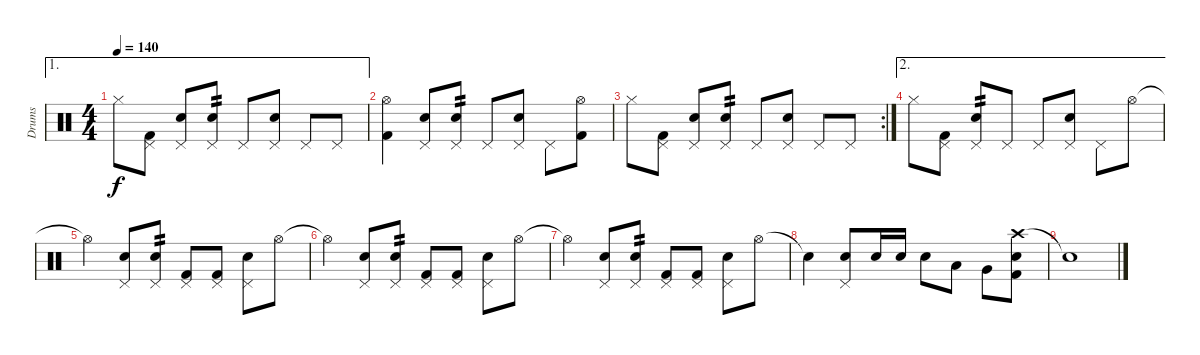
\track ("Drums" "Drums") {instrument percussion}
\staff {score}
\articulation defaults
\ae 1
\ts (4 4)
\tempo 140
\clef neutral
\ks c "Hi-Hat (closed)".8{dy f}
("Pedal Hi-Hat (hit)" "Kick (hit) 2").8 ("Pedal Hi-Hat (hit)" "Snare (hit) 2").8 ("Pedal Hi-Hat (hit)" "Snare (hit) 2").8{tp 2} "Pedal Hi-Hat (hit)".8 ("Pedal Hi-Hat (hit)" "Snare (hit) 2").8 "Pedal Hi-Hat (hit)".8 "Pedal Hi-Hat (hit)".8 |
("Hi-Hat (open)" "Kick (hit) 2").4 ("Pedal Hi-Hat (hit)" "Snare (hit) 2").8 ("Pedal Hi-Hat (hit)" "Snare (hit) 2").8{tp 2} "Pedal Hi-Hat (hit)".8 ("Pedal Hi-Hat (hit)" "Snare (hit) 2").8 "Pedal Hi-Hat (hit)".8 ("Hi-Hat (open)" "Kick (hit) 2").8 |
\rc 2 "Hi-Hat (closed)".8
("Pedal Hi-Hat (hit)" "Kick (hit) 2").8 ("Pedal Hi-Hat (hit)" "Snare (hit) 2").8 ("Pedal Hi-Hat (hit)" "Snare (hit) 2").8{tp 2} "Pedal Hi-Hat (hit)".8 ("Pedal Hi-Hat (hit)" "Snare (hit) 2").8 "Pedal Hi-Hat (hit)".8 "Pedal Hi-Hat (hit)".8 |
\ae 2 "Hi-Hat (closed)".8
("Pedal Hi-Hat (hit)" "Kick (hit) 2").8 ("Pedal Hi-Hat (hit)" "Snare (hit) 2").8{tp 2} "Pedal Hi-Hat (hit)".8 "Pedal Hi-Hat (hit)".8 ("Pedal Hi-Hat (hit)" "Snare (hit) 2").8 "Pedal Hi-Hat (hit)".8 "Hi-Hat (open)".8 |
"Hi-Hat (open)"{t}.4 ("Pedal Hi-Hat (hit)" "Snare (hit) 2").8 ("Pedal Hi-Hat (hit)" "Snare (hit) 2").8{tp 2} ("Pedal Hi-Hat (hit)" "Kick (hit) 2").8 ("Pedal Hi-Hat (hit)" "Kick (hit) 2").8 ("Pedal Hi-Hat (hit)" "Snare (hit) 2").8 "Hi-Hat (open)".8 |
"Hi-Hat (open)"{t}.4 ("Pedal Hi-Hat (hit)" "Snare (hit) 2").8 ("Pedal Hi-Hat (hit)" "Snare (hit) 2").8{tp 2} ("Pedal Hi-Hat (hit)" "Kick (hit) 2").8 ("Pedal Hi-Hat (hit)" "Kick (hit) 2").8 ("Pedal Hi-Hat (hit)" "Snare (hit) 2").8 "Hi-Hat (open)".8 |
"Hi-Hat (open)"{t}.4 ("Pedal Hi-Hat (hit)" "Snare (hit) 2").8 ("Pedal Hi-Hat (hit)" "Snare (hit) 2").8{tp 2} ("Pedal Hi-Hat (hit)" "Kick (hit) 2").8 ("Pedal Hi-Hat (hit)" "Kick (hit) 2").8 ("Pedal Hi-Hat (hit)" "Snare (hit) 2").8 "Hi-Hat (open)".8 |
"Snare (hit)"{t}.4 ("Pedal Hi-Hat (hit)" "Snare (hit) 2").8 "Snare (hit) 2".16 "Snare (hit) 2".16 "Snare (hit) 2".8 "Low Tom (hit)".8 "Very Low Tom (hit)".8 ("Crash high (hit)" "Snare (hit) 2" "Kick (hit) 2").8 |
"Snare (hit)"{t}.1
